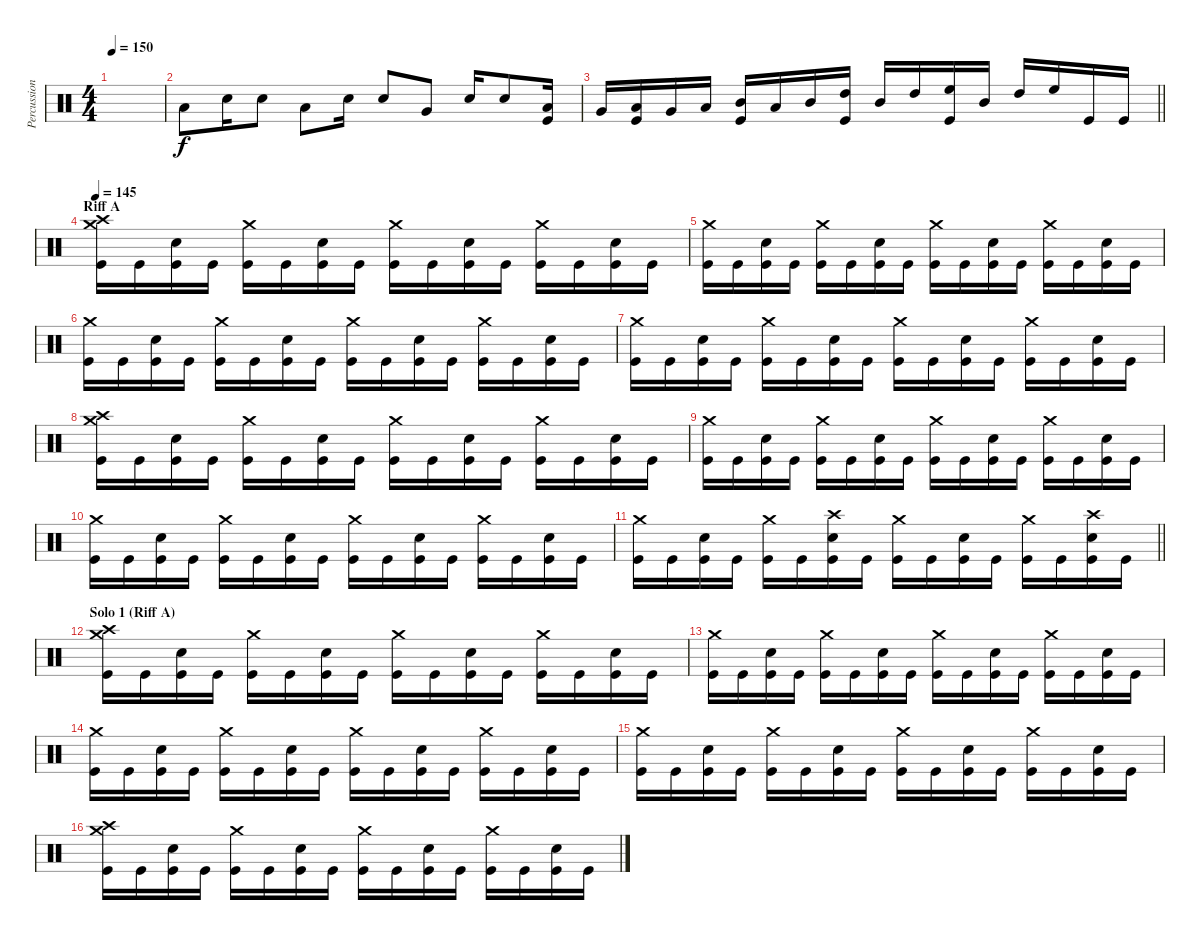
\track ("Percussion" "Percussion") {instrument percussion}
\staff {score}
\articulation defaults
\ts (4 4)
\tempo 150
\clef neutral
\ks c
|
"Low Tom (hit)".8 "Snare (hit) 2".16 "Snare (hit) 2".8 "Low Floor Tom (hit)".8 "Snare (hit) 2".16 "Snare (hit) 2".8 "Very Low Tom (hit)".8 "Snare (hit) 2".16 "Snare (hit) 2".8 ("Low Floor Tom (hit)" "Kick (hit)").16 |
\barLineRight lightlight "Very Low Tom (hit)".16
("Low Tom (hit)" "Kick (hit)").16 "Very Low Tom (hit)".16 "Low Tom (hit)".16 ("Mid Tom (hit)" "Kick (hit)").16 "Low Tom (hit)".16 "Mid Tom (hit)".16 ("High Tom (hit)" "Kick (hit)").16 "Mid Tom (hit)".16 "High Tom (hit)".16 ("High Floor Tom (hit)" "Kick (hit)").16 "Mid Tom (hit)".16 "High Tom (hit)".16 "High Floor Tom (hit)".16 "Kick (hit)".16 "Kick (hit)".16 |
\section ("" "Riff A")
\tempo 145
("Crash medium (hit)" "Crash high (hit)" "Kick (hit)").16 "Kick (hit)".16 ("Snare (hit) 2" "Kick (hit)").16 "Kick (hit)".16 ("Crash medium (hit)" "Kick (hit)").16 "Kick (hit)".16 ("Snare (hit) 2" "Kick (hit)").16 "Kick (hit)".16 ("Crash medium (hit)" "Kick (hit)").16 "Kick (hit)".16 ("Snare (hit) 2" "Kick (hit)").16 "Kick (hit)".16 ("Crash medium (hit)" "Kick (hit)").16 "Kick (hit)".16 ("Snare (hit) 2" "Kick (hit)").16 "Kick (hit)".16 |
("Crash medium (hit)" "Kick (hit)").16 "Kick (hit)".16 ("Snare (hit) 2" "Kick (hit)").16 "Kick (hit)".16 ("Crash medium (hit)" "Kick (hit)").16 "Kick (hit)".16 ("Snare (hit) 2" "Kick (hit)").16 "Kick (hit)".16 ("Crash medium (hit)" "Kick (hit)").16 "Kick (hit)".16 ("Snare (hit) 2" "Kick (hit)").16 "Kick (hit)".16 ("Crash medium (hit)" "Kick (hit)").16 "Kick (hit)".16 ("Snare (hit) 2" "Kick (hit)").16 "Kick (hit)".16 |
("Crash medium (hit)" "Kick (hit)").16 "Kick (hit)".16 ("Snare (hit) 2" "Kick (hit)").16 "Kick (hit)".16 ("Crash medium (hit)" "Kick (hit)").16 "Kick (hit)".16 ("Snare (hit) 2" "Kick (hit)").16 "Kick (hit)".16 ("Crash medium (hit)" "Kick (hit)").16 "Kick (hit)".16 ("Snare (hit) 2" "Kick (hit)").16 "Kick (hit)".16 ("Crash medium (hit)" "Kick (hit)").16 "Kick (hit)".16 ("Snare (hit) 2" "Kick (hit)").16 "Kick (hit)".16 |
("Crash medium (hit)" "Kick (hit)").16 "Kick (hit)".16 ("Snare (hit) 2" "Kick (hit)").16 "Kick (hit)".16 ("Crash medium (hit)" "Kick (hit)").16 "Kick (hit)".16 ("Snare (hit) 2" "Kick (hit)").16 "Kick (hit)".16 ("Crash medium (hit)" "Kick (hit)").16 "Kick (hit)".16 ("Snare (hit) 2" "Kick (hit)").16 "Kick (hit)".16 ("Crash medium (hit)" "Kick (hit)").16 "Kick (hit)".16 ("Snare (hit) 2" "Kick (hit)").16 "Kick (hit)".16 |
("Crash high (hit)" "Crash medium (hit)" "Kick (hit)").16 "Kick (hit)".16 ("Snare (hit) 2" "Kick (hit)").16 "Kick (hit)".16 ("Crash medium (hit)" "Kick (hit)").16 "Kick (hit)".16 ("Snare (hit) 2" "Kick (hit)").16 "Kick (hit)".16 ("Crash medium (hit)" "Kick (hit)").16 "Kick (hit)".16 ("Snare (hit) 2" "Kick (hit)").16 "Kick (hit)".16 ("Crash medium (hit)" "Kick (hit)").16 "Kick (hit)".16 ("Snare (hit) 2" "Kick (hit)").16 "Kick (hit)".16 |
("Crash medium (hit)" "Kick (hit)").16 "Kick (hit)".16 ("Snare (hit) 2" "Kick (hit)").16 "Kick (hit)".16 ("Crash medium (hit)" "Kick (hit)").16 "Kick (hit)".16 ("Snare (hit) 2" "Kick (hit)").16 "Kick (hit)".16 ("Crash medium (hit)" "Kick (hit)").16 "Kick (hit)".16 ("Snare (hit) 2" "Kick (hit)").16 "Kick (hit)".16 ("Crash medium (hit)" "Kick (hit)").16 "Kick (hit)".16 ("Snare (hit) 2" "Kick (hit)").16 "Kick (hit)".16 |
("Crash medium (hit)" "Kick (hit)").16 "Kick (hit)".16 ("Snare (hit) 2" "Kick (hit)").16 "Kick (hit)".16 ("Crash medium (hit)" "Kick (hit)").16 "Kick (hit)".16 ("Snare (hit) 2" "Kick (hit)").16 "Kick (hit)".16 ("Crash medium (hit)" "Kick (hit)").16 "Kick (hit)".16 ("Snare (hit) 2" "Kick (hit)").16 "Kick (hit)".16 ("Crash medium (hit)" "Kick (hit)").16 "Kick (hit)".16 ("Snare (hit) 2" "Kick (hit)").16 "Kick (hit)".16 |
\barLineRight lightlight
("Crash medium (hit)" "Kick (hit)").16 "Kick (hit)".16 ("Snare (hit) 2" "Kick (hit)").16 "Kick (hit)".16 ("Crash medium (hit)" "Kick (hit)").16 "Kick (hit)".16 ("Crash high (hit)" "Snare (hit) 2" "Kick (hit)").16 "Kick (hit)".16 ("Crash medium (hit)" "Kick (hit)").16 "Kick (hit)".16 ("Snare (hit) 2" "Kick (hit)").16 "Kick (hit)".16 ("Crash medium (hit)" "Kick (hit)").16 "Kick (hit)".16 ("Crash high (hit)" "Snare (hit) 2" "Kick (hit)").16 "Kick (hit)".16 |
\section ("" "Solo 1 (Riff A)")
("Crash medium (hit)" "Crash high (hit)" "Kick (hit)").16 "Kick (hit)".16 ("Snare (hit) 2" "Kick (hit)").16 "Kick (hit)".16 ("Crash medium (hit)" "Kick (hit)").16 "Kick (hit)".16 ("Snare (hit) 2" "Kick (hit)").16 "Kick (hit)".16 ("Crash medium (hit)" "Kick (hit)").16 "Kick (hit)".16 ("Snare (hit) 2" "Kick (hit)").16 "Kick (hit)".16 ("Crash medium (hit)" "Kick (hit)").16 "Kick (hit)".16 ("Snare (hit) 2" "Kick (hit)").16 "Kick (hit)".16 |
("Crash medium (hit)" "Kick (hit)").16 "Kick (hit)".16 ("Snare (hit) 2" "Kick (hit)").16 "Kick (hit)".16 ("Crash medium (hit)" "Kick (hit)").16 "Kick (hit)".16 ("Snare (hit) 2" "Kick (hit)").16 "Kick (hit)".16 ("Crash medium (hit)" "Kick (hit)").16 "Kick (hit)".16 ("Snare (hit) 2" "Kick (hit)").16 "Kick (hit)".16 ("Crash medium (hit)" "Kick (hit)").16 "Kick (hit)".16 ("Snare (hit) 2" "Kick (hit)").16 "Kick (hit)".16 |
("Crash medium (hit)" "Kick (hit)").16 "Kick (hit)".16 ("Snare (hit) 2" "Kick (hit)").16 "Kick (hit)".16 ("Crash medium (hit)" "Kick (hit)").16 "Kick (hit)".16 ("Snare (hit) 2" "Kick (hit)").16 "Kick (hit)".16 ("Crash medium (hit)" "Kick (hit)").16 "Kick (hit)".16 ("Snare (hit) 2" "Kick (hit)").16 "Kick (hit)".16 ("Crash medium (hit)" "Kick (hit)").16 "Kick (hit)".16 ("Snare (hit) 2" "Kick (hit)").16 "Kick (hit)".16 |
("Crash medium (hit)" "Kick (hit)").16 "Kick (hit)".16 ("Snare (hit) 2" "Kick (hit)").16 "Kick (hit)".16 ("Crash medium (hit)" "Kick (hit)").16 "Kick (hit)".16 ("Snare (hit) 2" "Kick (hit)").16 "Kick (hit)".16 ("Crash medium (hit)" "Kick (hit)").16 "Kick (hit)".16 ("Snare (hit) 2" "Kick (hit)").16 "Kick (hit)".16 ("Crash medium (hit)" "Kick (hit)").16 "Kick (hit)".16 ("Snare (hit) 2" "Kick (hit)").16 "Kick (hit)".16 |
("Crash high (hit)" "Crash medium (hit)" "Kick (hit)").16 "Kick (hit)".16 ("Snare (hit) 2" "Kick (hit)").16 "Kick (hit)".16 ("Crash medium (hit)" "Kick (hit)").16 "Kick (hit)".16 ("Snare (hit) 2" "Kick (hit)").16 "Kick (hit)".16 ("Crash medium (hit)" "Kick (hit)").16 "Kick (hit)".16 ("Snare (hit) 2" "Kick (hit)").16 "Kick (hit)".16 ("Crash medium (hit)" "Kick (hit)").16 "Kick (hit)".16 ("Snare (hit) 2" "Kick (hit)").16 "Kick (hit)".16
